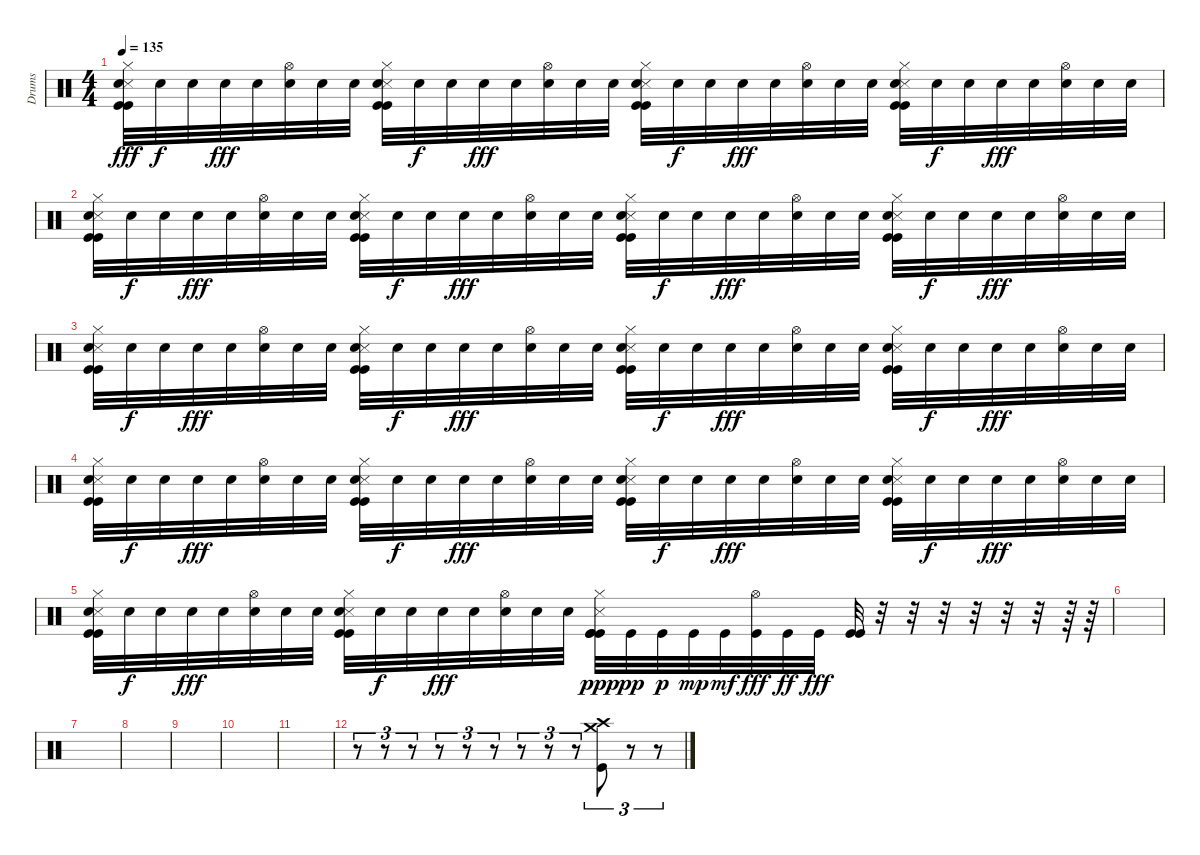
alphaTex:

\track ("Drums" "Drums") {instrument percussion bank 24}
\staff
\articulation defaults
\ts (4 4)
\tempo 135
\clef neutral
\ks c
("Hi-Hat (closed)" "Metronome (hit)" "Kick (hit)" "Kick (hit)" "Snare (hit) 2").32{dy fff} "Snare (hit)".32{dy f} "Snare (hit)".32 "Snare (hit)".32{dy fff} "Snare (hit)".32 ("Hi-Hat (open)" "Snare (hit)").32 "Snare (hit)".32 "Snare (hit)".32 ("Hi-Hat (closed)" "Metronome (hit)" "Kick (hit)" "Kick (hit)" "Snare (hit)").32 "Snare (hit)".32{dy f} "Snare (hit)".32 "Snare (hit)".32{dy fff} "Snare (hit)".32 ("Hi-Hat (open)" "Snare (hit)").32 "Snare (hit)".32 "Snare (hit)".32 ("Hi-Hat (closed)" "Metronome (hit)" "Kick (hit)" "Kick (hit)" "Snare (hit) 2").32 "Snare (hit)".32{dy f} "Snare (hit)".32 "Snare (hit)".32{dy fff} "Snare (hit)".32 ("Hi-Hat (open)" "Snare (hit)").32 "Snare (hit)".32 "Snare (hit)".32 ("Hi-Hat (closed)" "Metronome (hit)" "Kick (hit)" "Kick (hit)" "Snare (hit)").32 "Snare (hit)".32{dy f} "Snare (hit)".32 "Snare (hit)".32{dy fff} "Snare (hit)".32 ("Hi-Hat (open)" "Snare (hit)").32 "Snare (hit)".32 "Snare (hit)".32 |
("Hi-Hat (closed)" "Metronome (hit)" "Kick (hit)" "Kick (hit)" "Snare (hit) 2").32 "Snare (hit)".32{dy f} "Snare (hit)".32 "Snare (hit)".32{dy fff} "Snare (hit)".32 ("Hi-Hat (open)" "Snare (hit)").32 "Snare (hit)".32 "Snare (hit)".32 ("Hi-Hat (closed)" "Metronome (hit)" "Kick (hit)" "Kick (hit)" "Snare (hit)").32 "Snare (hit)".32{dy f} "Snare (hit)".32 "Snare (hit)".32{dy fff} "Snare (hit)".32 ("Hi-Hat (open)" "Snare (hit)").32 "Snare (hit)".32 "Snare (hit)".32 ("Hi-Hat (closed)" "Metronome (hit)" "Kick (hit)" "Kick (hit)" "Snare (hit) 2").32 "Snare (hit)".32{dy f} "Snare (hit)".32 "Snare (hit)".32{dy fff} "Snare (hit)".32 ("Hi-Hat (open)" "Snare (hit)").32 "Snare (hit)".32 "Snare (hit)".32 ("Hi-Hat (closed)" "Metronome (hit)" "Kick (hit)" "Kick (hit)" "Snare (hit)").32 "Snare (hit)".32{dy f} "Snare (hit)".32 "Snare (hit)".32{dy fff} "Snare (hit)".32 ("Hi-Hat (open)" "Snare (hit)").32 "Snare (hit)".32 "Snare (hit)".32 |
("Hi-Hat (closed)" "Metronome (hit)" "Kick (hit)" "Kick (hit)" "Snare (hit) 2").32 "Snare (hit)".32{dy f} "Snare (hit)".32 "Snare (hit)".32{dy fff} "Snare (hit)".32 ("Hi-Hat (open)" "Snare (hit)").32 "Snare (hit)".32 "Snare (hit)".32 ("Hi-Hat (closed)" "Metronome (hit)" "Kick (hit)" "Kick (hit)" "Snare (hit)").32 "Snare (hit)".32{dy f} "Snare (hit)".32 "Snare (hit)".32{dy fff} "Snare (hit)".32 ("Hi-Hat (open)" "Snare (hit)").32 "Snare (hit)".32 "Snare (hit)".32 ("Hi-Hat (closed)" "Metronome (hit)" "Kick (hit)" "Kick (hit)" "Snare (hit) 2").32 "Snare (hit)".32{dy f} "Snare (hit)".32 "Snare (hit)".32{dy fff} "Snare (hit)".32 ("Hi-Hat (open)" "Snare (hit)").32 "Snare (hit)".32 "Snare (hit)".32 ("Hi-Hat (closed)" "Metronome (hit)" "Kick (hit)" "Kick (hit)" "Snare (hit)").32 "Snare (hit)".32{dy f} "Snare (hit)".32 "Snare (hit)".32{dy fff} "Snare (hit)".32 ("Hi-Hat (open)" "Snare (hit)").32 "Snare (hit)".32 "Snare (hit)".32 |
("Hi-Hat (closed)" "Metronome (hit)" "Kick (hit)" "Kick (hit)" "Snare (hit) 2").32 "Snare (hit)".32{dy f} "Snare (hit)".32 "Snare (hit)".32{dy fff} "Snare (hit)".32 ("Hi-Hat (open)" "Snare (hit)").32 "Snare (hit)".32 "Snare (hit)".32 ("Hi-Hat (closed)" "Metronome (hit)" "Kick (hit)" "Kick (hit)" "Snare (hit)").32 "Snare (hit)".32{dy f} "Snare (hit)".32 "Snare (hit)".32{dy fff} "Snare (hit)".32 ("Hi-Hat (open)" "Snare (hit)").32 "Snare (hit)".32 "Snare (hit)".32 ("Hi-Hat (closed)" "Metronome (hit)" "Kick (hit)" "Kick (hit)" "Snare (hit) 2").32 "Snare (hit)".32{dy f} "Snare (hit)".32 "Snare (hit)".32{dy fff} "Snare (hit)".32 ("Hi-Hat (open)" "Snare (hit)").32 "Snare (hit)".32 "Snare (hit)".32 ("Hi-Hat (closed)" "Metronome (hit)" "Kick (hit)" "Kick (hit)" "Snare (hit)").32 "Snare (hit)".32{dy f} "Snare (hit)".32 "Snare (hit)".32{dy fff} "Snare (hit)".32 ("Hi-Hat (open)" "Snare (hit)").32 "Snare (hit)".32 "Snare (hit)".32 |
("Hi-Hat (closed)" "Metronome (hit)" "Kick (hit)" "Kick (hit)" "Snare (hit) 2").32 "Snare (hit)".32{dy f} "Snare (hit)".32 "Snare (hit)".32{dy fff} "Snare (hit)".32 ("Hi-Hat (open)" "Snare (hit)").32 "Snare (hit)".32 "Snare (hit)".32 ("Hi-Hat (closed)" "Metronome (hit)" "Kick (hit)" "Kick (hit)" "Snare (hit)").32 "Snare (hit)".32{dy f} "Snare (hit)".32 "Snare (hit)".32{dy fff} "Snare (hit)".32 ("Hi-Hat (open)" "Snare (hit)").32 "Snare (hit)".32 "Snare (hit)".32 ("Hi-Hat (closed)" "Metronome (hit)" "Kick (hit)" "Kick (hit)" "Kick (hit)").32{dy ppp} "Kick (hit)".32{dy pp} "Kick (hit)".32{dy p} "Kick (hit)".32{dy mp} "Kick (hit)".32{dy mf} ("Hi-Hat (open)" "Kick (hit)").32{dy fff} "Kick (hit)".32{dy ff} "Kick (hit)".32{dy fff} ("Kick (hit)" "Kick (hit)").32 r.32 r.32 r.32 r.32 r.32 r.32 r.64 r.64 |
|
|
|
|
|
|
r.8{tu (3 2)} r.8{tu (3 2)} r.8{tu (3 2)} r.8{tu (3 2)} r.8{tu (3 2)} r.8{tu (3 2)} r.8{tu (3 2)} r.8{tu (3 2)} r.8{tu (3 2)} ("Kick (hit)" "Crash high (hit)" "Crash medium (hit)").8{tu (3 2)} r.8{tu (3 2)} r.8{tu (3 2)}
